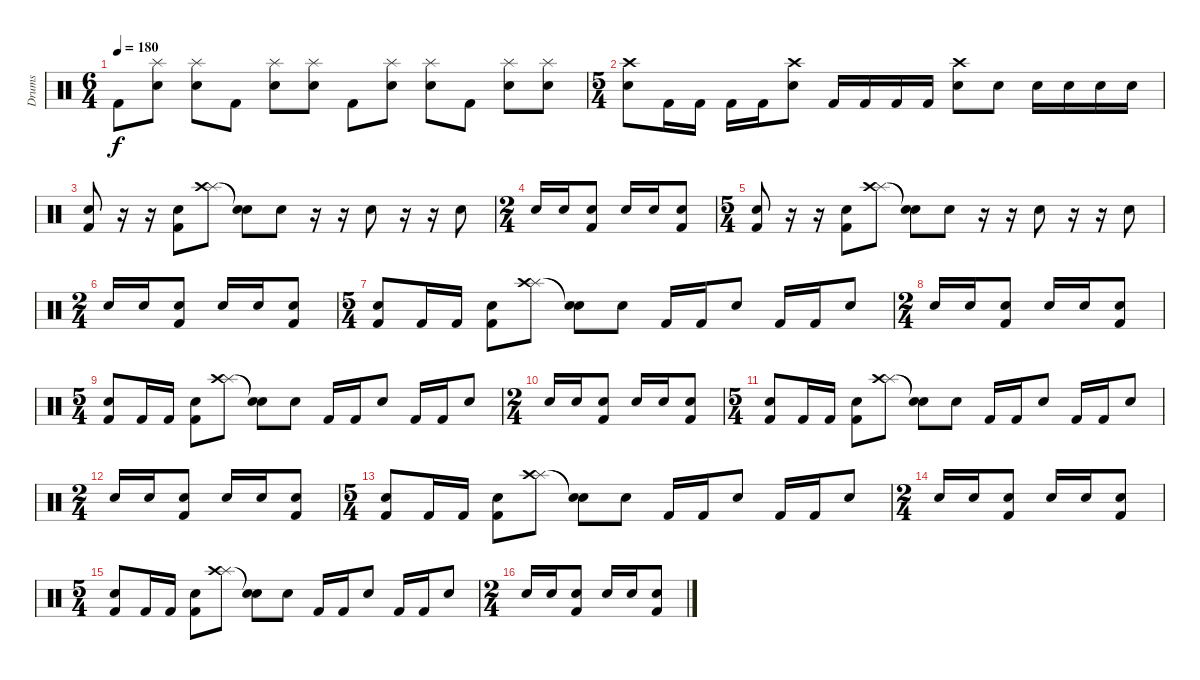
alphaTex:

\track ("Drums" "Drums") {instrument percussion}
\staff {score}
\articulation defaults
\ts (6 4)
\tempo 180
\clef neutral
\ks c "Kick (hit) 2".8{dy f}
("Splash (hit)" "Snare (hit) 2").8 ("Splash (hit)" "Snare (hit) 2").8 "Kick (hit) 2".8 ("Splash (hit)" "Snare (hit) 2").8 ("Splash (hit)" "Snare (hit) 2").8 "Kick (hit) 2".8 ("Splash (hit)" "Snare (hit) 2").8 ("Splash (hit)" "Snare (hit) 2").8 "Kick (hit) 2".8 ("Splash (hit)" "Snare (hit) 2").8 ("Splash (hit)" "Snare (hit) 2").8 |
\ts (5 4)
("Crash high (hit)" "Snare (hit) 2").8 "Kick (hit) 2".16 "Kick (hit) 2".16 "Kick (hit) 2".16 "Kick (hit) 2".16 ("Crash high (hit)" "Snare (hit) 2").8 "Kick (hit) 2".16 "Kick (hit) 2".16 "Kick (hit) 2".16 "Kick (hit) 2".16 ("Crash high (hit)" "Snare (hit) 2").8 "Snare (hit) 2".8 "Snare (hit) 2".16 "Snare (hit) 2".16 "Snare (hit) 2".16 "Snare (hit) 2".16 |
("Snare (hit) 2" "Kick (hit) 2").8 r.16 r.16 ("Snare (hit) 2" "Kick (hit) 2").8 ("Splash (hit)" "Crash high (hit)").8 ("Snare (hit)"{t} "Snare (hit)"{t}).8 "Snare (hit) 2".8 r.16 r.16 "Snare (hit) 2".8 r.16 r.16 "Snare (hit) 2".8 |
\ts (2 4)
"Snare (hit) 2".16 "Snare (hit) 2".16 ("Snare (hit) 2" "Kick (hit) 2").8 "Snare (hit) 2".16 "Snare (hit) 2".16 ("Snare (hit) 2" "Kick (hit) 2").8 |
\ts (5 4)
("Snare (hit) 2" "Kick (hit) 2").8 r.16 r.16 ("Snare (hit) 2" "Kick (hit) 2").8 ("Splash (hit)" "Crash high (hit)").8 ("Snare (hit)"{t} "Snare (hit)"{t}).8 "Snare (hit) 2".8 r.16 r.16 "Snare (hit) 2".8 r.16 r.16 "Snare (hit) 2".8 |
\ts (2 4)
"Snare (hit) 2".16 "Snare (hit) 2".16 ("Snare (hit) 2" "Kick (hit) 2").8 "Snare (hit) 2".16 "Snare (hit) 2".16 ("Snare (hit) 2" "Kick (hit) 2").8 |
\ts (5 4)
("Snare (hit) 2" "Kick (hit) 2").8 "Kick (hit) 2".16 "Kick (hit) 2".16 ("Snare (hit) 2" "Kick (hit) 2").8 ("Splash (hit)" "Crash high (hit)").8 ("Snare (hit)"{t} "Snare (hit)"{t}).8 "Snare (hit) 2".8 "Kick (hit) 2".16 "Kick (hit) 2".16 "Snare (hit) 2".8 "Kick (hit) 2".16 "Kick (hit) 2".16 "Snare (hit) 2".8 |
\ts (2 4)
"Snare (hit) 2".16 "Snare (hit) 2".16 ("Snare (hit) 2" "Kick (hit) 2").8 "Snare (hit) 2".16 "Snare (hit) 2".16 ("Snare (hit) 2" "Kick (hit) 2").8 |
\ts (5 4)
("Snare (hit) 2" "Kick (hit) 2").8 "Kick (hit) 2".16 "Kick (hit) 2".16 ("Snare (hit) 2" "Kick (hit) 2").8 ("Splash (hit)" "Crash high (hit)").8 ("Snare (hit)"{t} "Snare (hit)"{t}).8 "Snare (hit) 2".8 "Kick (hit) 2".16 "Kick (hit) 2".16 "Snare (hit) 2".8 "Kick (hit) 2".16 "Kick (hit) 2".16 "Snare (hit) 2".8 |
\ts (2 4)
"Snare (hit) 2".16 "Snare (hit) 2".16 ("Snare (hit) 2" "Kick (hit) 2").8 "Snare (hit) 2".16 "Snare (hit) 2".16 ("Snare (hit) 2" "Kick (hit) 2").8 |
\ts (5 4)
("Snare (hit) 2" "Kick (hit) 2").8 "Kick (hit) 2".16 "Kick (hit) 2".16 ("Snare (hit) 2" "Kick (hit) 2").8 ("Splash (hit)" "Crash high (hit)").8 ("Snare (hit)"{t} "Snare (hit)"{t}).8 "Snare (hit) 2".8 "Kick (hit) 2".16 "Kick (hit) 2".16 "Snare (hit) 2".8 "Kick (hit) 2".16 "Kick (hit) 2".16 "Snare (hit) 2".8 |
\ts (2 4)
"Snare (hit) 2".16 "Snare (hit) 2".16 ("Snare (hit) 2" "Kick (hit) 2").8 "Snare (hit) 2".16 "Snare (hit) 2".16 ("Snare (hit) 2" "Kick (hit) 2").8 |
\ts (5 4)
("Snare (hit) 2" "Kick (hit) 2").8 "Kick (hit) 2".16 "Kick (hit) 2".16 ("Snare (hit) 2" "Kick (hit) 2").8 ("Splash (hit)" "Crash high (hit)").8 ("Snare (hit)"{t} "Snare (hit)"{t}).8 "Snare (hit) 2".8 "Kick (hit) 2".16 "Kick (hit) 2".16 "Snare (hit) 2".8 "Kick (hit) 2".16 "Kick (hit) 2".16 "Snare (hit) 2".8 |
\ts (2 4)
"Snare (hit) 2".16 "Snare (hit) 2".16 ("Snare (hit) 2" "Kick (hit) 2").8 "Snare (hit) 2".16 "Snare (hit) 2".16 ("Snare (hit) 2" "Kick (hit) 2").8 |
\ts (5 4)
("Snare (hit) 2" "Kick (hit) 2").8 "Kick (hit) 2".16 "Kick (hit) 2".16 ("Snare (hit) 2" "Kick (hit) 2").8 ("Splash (hit)" "Crash high (hit)").8 ("Snare (hit)"{t} "Snare (hit)"{t}).8 "Snare (hit) 2".8 "Kick (hit) 2".16 "Kick (hit) 2".16 "Snare (hit) 2".8 "Kick (hit) 2".16 "Kick (hit) 2".16 "Snare (hit) 2".8 |
\ts (2 4)
"Snare (hit) 2".16 "Snare (hit) 2".16 ("Snare (hit) 2" "Kick (hit) 2").8 "Snare (hit) 2".16 "Snare (hit) 2".16 ("Snare (hit) 2" "Kick (hit) 2").8
